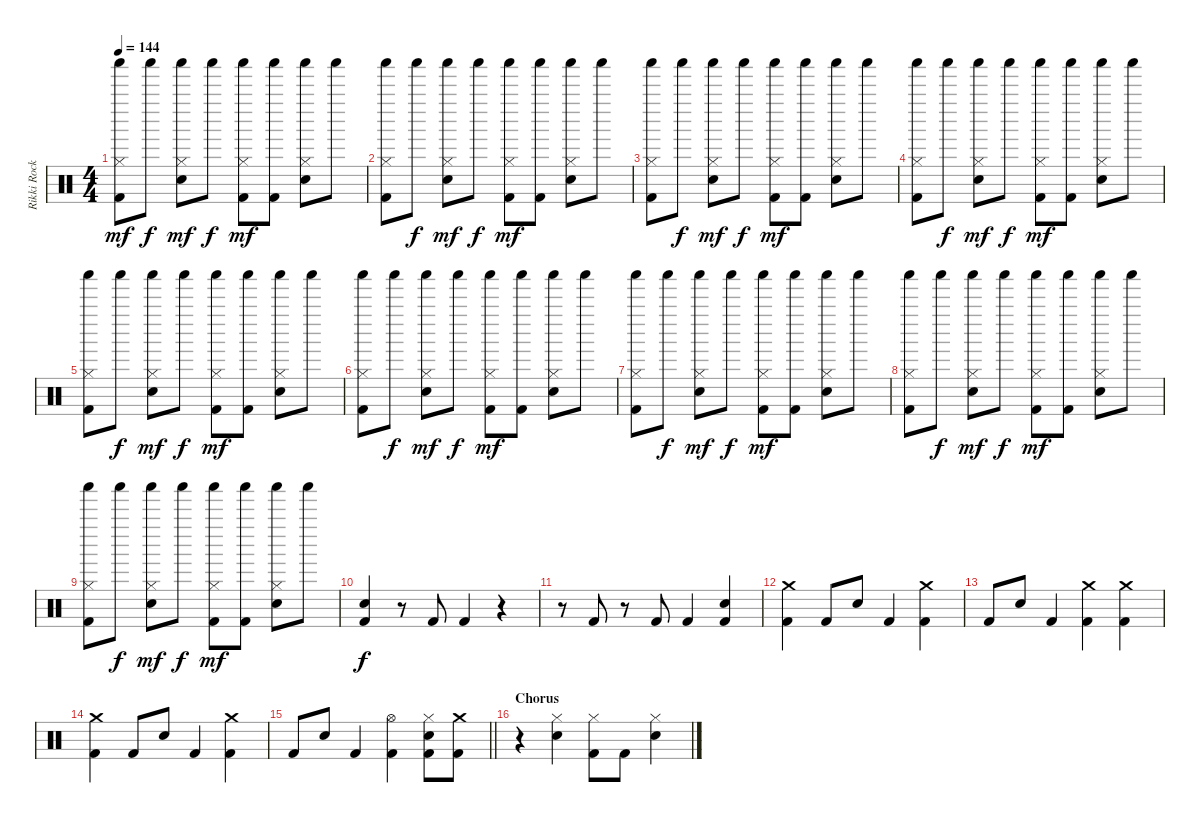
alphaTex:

\track ("Rikki Rockett - Drums" "Rikki Rock") {instrument percussion}
\staff {score}
\articulation defaults
\ts (4 4)
\tempo 144
\clef neutral
\ks c
("Hi-Hat (closed)" "Shaker (hit)" "Kick (hit) 2").8{dy mf} "Shaker (hit)".8{dy f} ("Hi-Hat (closed)" "Shaker (hit)" "Electric Snare (hit)").8{dy mf} "Shaker (hit)".8{dy f} ("Hi-Hat (closed)" "Shaker (hit)" "Kick (hit) 2").8{dy mf} ("Shaker (hit)" "Kick (hit) 2").8 ("Hi-Hat (closed)" "Shaker (hit)" "Electric Snare (hit)").8 "Shaker (hit)".8 |
("Hi-Hat (closed)" "Shaker (hit)" "Kick (hit) 2").8 "Shaker (hit)".8{dy f} ("Hi-Hat (closed)" "Shaker (hit)" "Electric Snare (hit)").8{dy mf} "Shaker (hit)".8{dy f} ("Hi-Hat (closed)" "Shaker (hit)" "Kick (hit) 2").8{dy mf} ("Shaker (hit)" "Kick (hit) 2").8 ("Hi-Hat (closed)" "Shaker (hit)" "Electric Snare (hit)").8 "Shaker (hit)".8 |
("Hi-Hat (closed)" "Shaker (hit)" "Kick (hit) 2").8 "Shaker (hit)".8{dy f} ("Hi-Hat (closed)" "Shaker (hit)" "Electric Snare (hit)").8{dy mf} "Shaker (hit)".8{dy f} ("Hi-Hat (closed)" "Shaker (hit)" "Kick (hit) 2").8{dy mf} ("Shaker (hit)" "Kick (hit) 2").8 ("Hi-Hat (closed)" "Shaker (hit)" "Electric Snare (hit)").8 "Shaker (hit)".8 |
("Hi-Hat (closed)" "Shaker (hit)" "Kick (hit) 2").8 "Shaker (hit)".8{dy f} ("Hi-Hat (closed)" "Shaker (hit)" "Electric Snare (hit)").8{dy mf} "Shaker (hit)".8{dy f} ("Hi-Hat (closed)" "Shaker (hit)" "Kick (hit) 2").8{dy mf} ("Shaker (hit)" "Kick (hit) 2").8 ("Hi-Hat (closed)" "Shaker (hit)" "Electric Snare (hit)").8 "Shaker (hit)".8 |
("Hi-Hat (closed)" "Shaker (hit)" "Kick (hit) 2").8 "Shaker (hit)".8{dy f} ("Hi-Hat (closed)" "Shaker (hit)" "Electric Snare (hit)").8{dy mf} "Shaker (hit)".8{dy f} ("Hi-Hat (closed)" "Shaker (hit)" "Kick (hit) 2").8{dy mf} ("Shaker (hit)" "Kick (hit) 2").8 ("Hi-Hat (closed)" "Shaker (hit)" "Electric Snare (hit)").8 "Shaker (hit)".8 |
("Hi-Hat (closed)" "Shaker (hit)" "Kick (hit) 2").8 "Shaker (hit)".8{dy f} ("Hi-Hat (closed)" "Shaker (hit)" "Electric Snare (hit)").8{dy mf} "Shaker (hit)".8{dy f} ("Hi-Hat (closed)" "Shaker (hit)" "Kick (hit) 2").8{dy mf} ("Shaker (hit)" "Kick (hit) 2").8 ("Hi-Hat (closed)" "Shaker (hit)" "Electric Snare (hit)").8 "Shaker (hit)".8 |
("Hi-Hat (closed)" "Shaker (hit)" "Kick (hit) 2").8 "Shaker (hit)".8{dy f} ("Hi-Hat (closed)" "Shaker (hit)" "Electric Snare (hit)").8{dy mf} "Shaker (hit)".8{dy f} ("Hi-Hat (closed)" "Shaker (hit)" "Kick (hit) 2").8{dy mf} ("Shaker (hit)" "Kick (hit) 2").8 ("Hi-Hat (closed)" "Shaker (hit)" "Electric Snare (hit)").8 "Shaker (hit)".8 |
("Hi-Hat (closed)" "Shaker (hit)" "Kick (hit) 2").8 "Shaker (hit)".8{dy f} ("Hi-Hat (closed)" "Shaker (hit)" "Electric Snare (hit)").8{dy mf} "Shaker (hit)".8{dy f} ("Hi-Hat (closed)" "Shaker (hit)" "Kick (hit) 2").8{dy mf} ("Shaker (hit)" "Kick (hit) 2").8 ("Hi-Hat (closed)" "Shaker (hit)" "Electric Snare (hit)").8 "Shaker (hit)".8 |
("Hi-Hat (closed)" "Shaker (hit)" "Kick (hit) 2").8 "Shaker (hit)".8{dy f} ("Hi-Hat (closed)" "Shaker (hit)" "Electric Snare (hit)").8{dy mf} "Shaker (hit)".8{dy f} ("Hi-Hat (closed)" "Shaker (hit)" "Kick (hit) 2").8{dy mf} ("Shaker (hit)" "Kick (hit) 2").8 ("Hi-Hat (closed)" "Shaker (hit)" "Electric Snare (hit)").8 "Shaker (hit)".8 |
("Electric Snare (hit)" "Kick (hit) 2").4{dy f} r.8 "Kick (hit) 2".8 "Kick (hit) 2".4 r.4 |
r.8 "Kick (hit) 2".8 r.8 "Kick (hit) 2".8 "Kick (hit) 2".4 ("Electric Snare (hit)" "Kick (hit) 2").4 |
("Crash medium (hit)" "Kick (hit) 2").4 "Kick (hit) 2".8 "Electric Snare (hit)".8 "Kick (hit) 2".4 ("Crash medium (hit)" "Kick (hit) 2").4 |
"Kick (hit) 2".8 "Electric Snare (hit)".8 "Kick (hit) 2".4 ("Crash medium (hit)" "Kick (hit) 2").4 ("Crash medium (hit)" "Kick (hit) 2").4 |
("Crash medium (hit)" "Kick (hit) 2").4 "Kick (hit) 2".8 "Electric Snare (hit)".8 "Kick (hit) 2".4 ("Crash medium (hit)" "Kick (hit) 2").4 |
\barLineRight lightlight "Kick (hit) 2".8 "Electric Snare (hit)".8 "Kick (hit) 2".4
("Hi-Hat (open)" "Kick (hit) 2").4 ("Hi-Hat (closed)" "Electric Snare (hit)" "Kick (hit) 2").8 ("Crash medium (hit)" "Kick (hit) 2").8 |
\section ("" "Chorus")
r.4 ("Hi-Hat (closed)" "Electric Snare (hit)").4 ("Hi-Hat (closed)" "Kick (hit) 2").8 "Kick (hit) 2".8 ("Hi-Hat (closed)" "Electric Snare (hit)").4
